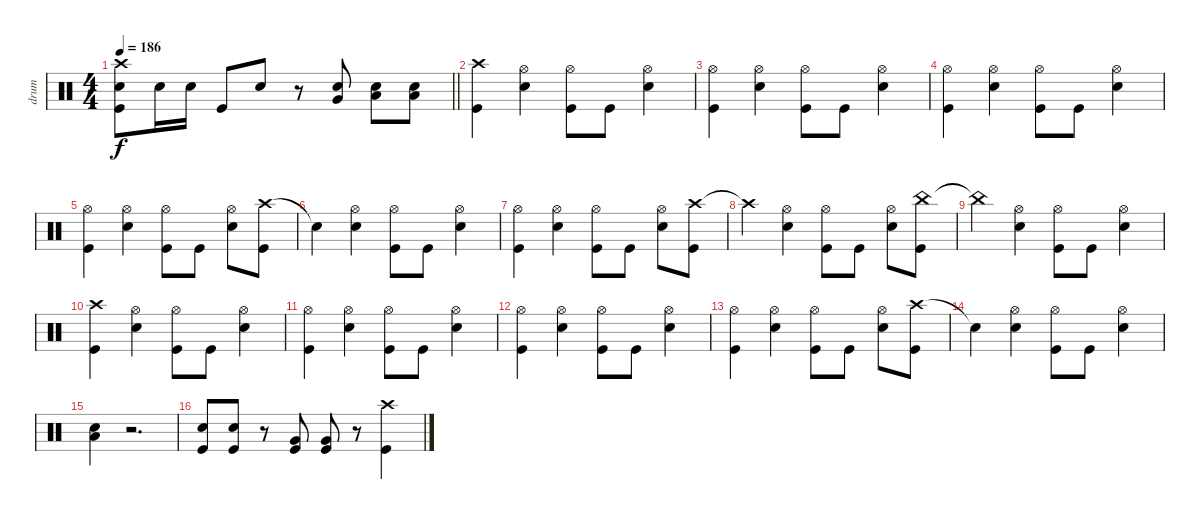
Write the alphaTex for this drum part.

\track ("drum" "drum") {instrument percussion}
\staff {score}
\articulation defaults
\ts (4 4)
\tempo 186
\clef neutral
\barLineRight lightlight
\ks c
("Crash high (hit)" "Snare (hit) 2" "Kick (hit)").8{dy f} "Snare (hit) 2".16 "Snare (hit) 2".16 "Kick (hit)".8 "Snare (hit) 2".8 r.8 ("Snare (hit) 2" "Very Low Tom (hit)").8 ("Snare (hit) 2" "Low Floor Tom (hit)").8 ("Snare (hit) 2" "Low Floor Tom (hit)").8 |
("Crash high (hit)" "Kick (hit)").4 ("Hi-Hat (open)" "Snare (hit) 2").4 ("Hi-Hat (open)" "Kick (hit)").8 "Kick (hit)".8 ("Hi-Hat (open)" "Snare (hit) 2").4 |
("Hi-Hat (open)" "Kick (hit)").4 ("Hi-Hat (open)" "Snare (hit) 2").4 ("Hi-Hat (open)" "Kick (hit)").8 "Kick (hit)".8 ("Hi-Hat (open)" "Snare (hit) 2").4 |
("Hi-Hat (open)" "Kick (hit)").4 ("Hi-Hat (open)" "Snare (hit) 2").4 ("Hi-Hat (open)" "Kick (hit)").8 "Kick (hit)".8 ("Hi-Hat (open)" "Snare (hit) 2").4 |
("Hi-Hat (open)" "Kick (hit)").4 ("Hi-Hat (open)" "Snare (hit) 2").4 ("Hi-Hat (open)" "Kick (hit)").8 "Kick (hit)".8 ("Hi-Hat (open)" "Snare (hit) 2").8 ("Crash high (hit)" "Kick (hit)").8 |
"Snare (hit)"{t}.4 ("Hi-Hat (open)" "Snare (hit) 2").4 ("Hi-Hat (open)" "Kick (hit)").8 "Kick (hit)".8 ("Hi-Hat (open)" "Snare (hit) 2").4 |
("Hi-Hat (open)" "Kick (hit)").4 ("Hi-Hat (open)" "Snare (hit) 2").4 ("Hi-Hat (open)" "Kick (hit)").8 "Kick (hit)".8 ("Hi-Hat (open)" "Snare (hit) 2").8 ("Crash high (hit)" "Kick (hit)").8 |
"Crash high (hit)"{t}.4 ("Hi-Hat (open)" "Snare (hit) 2").4 ("Hi-Hat (open)" "Kick (hit)").8 "Kick (hit)".8 ("Hi-Hat (open)" "Snare (hit) 2").8 ("China (hit)" "Kick (hit)").8 |
"China (hit)"{t}.4 ("Hi-Hat (open)" "Snare (hit) 2").4 ("Hi-Hat (open)" "Kick (hit)").8 "Kick (hit)".8 ("Hi-Hat (open)" "Snare (hit) 2").4 |
("Crash high (hit)" "Kick (hit)").4 ("Hi-Hat (open)" "Snare (hit) 2").4 ("Hi-Hat (open)" "Kick (hit)").8 "Kick (hit)".8 ("Hi-Hat (open)" "Snare (hit) 2").4 |
("Hi-Hat (open)" "Kick (hit)").4 ("Hi-Hat (open)" "Snare (hit) 2").4 ("Hi-Hat (open)" "Kick (hit)").8 "Kick (hit)".8 ("Hi-Hat (open)" "Snare (hit) 2").4 |
("Hi-Hat (open)" "Kick (hit)").4 ("Hi-Hat (open)" "Snare (hit) 2").4 ("Hi-Hat (open)" "Kick (hit)").8 "Kick (hit)".8 ("Hi-Hat (open)" "Snare (hit) 2").4 |
("Hi-Hat (open)" "Kick (hit)").4 ("Hi-Hat (open)" "Snare (hit) 2").4 ("Hi-Hat (open)" "Kick (hit)").8 "Kick (hit)".8 ("Hi-Hat (open)" "Snare (hit) 2").8 ("Crash high (hit)" "Kick (hit)").8 |
"Snare (hit)"{t}.4 ("Hi-Hat (open)" "Snare (hit) 2").4 ("Hi-Hat (open)" "Kick (hit)").8 "Kick (hit)".8 ("Hi-Hat (open)" "Snare (hit) 2").4 |
("Snare (hit) 2" "Low Floor Tom (hit)").4 r.2{d} |
("Snare (hit) 2" "Kick (hit)").8 ("Snare (hit) 2" "Kick (hit)").8 r.8 ("Very Low Tom (hit)" "Kick (hit)").8 ("Very Low Tom (hit)" "Kick (hit)").8 r.8 ("Crash high (hit)" "Kick (hit)").4
